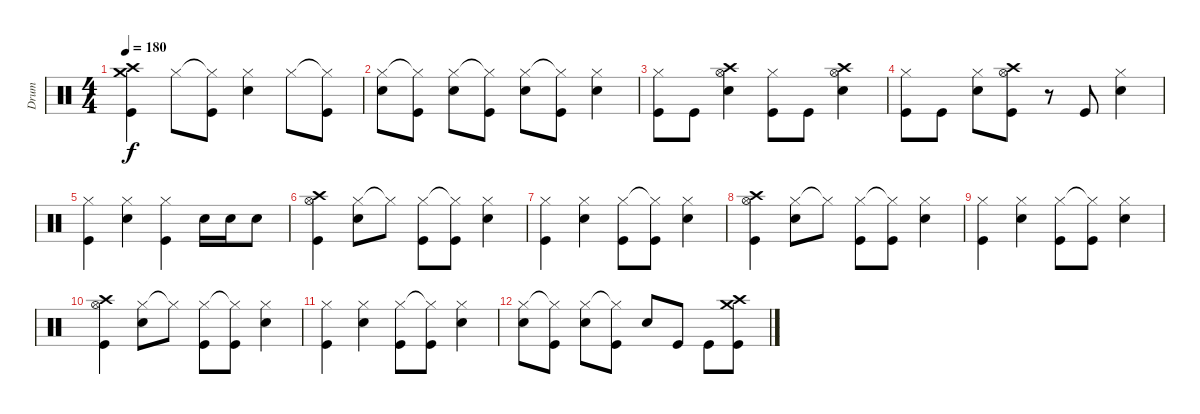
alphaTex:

\track ("Drum" "Drum") {instrument percussion}
\staff {score}
\articulation defaults
\ts (4 4)
\tempo 180
\clef neutral
\ks c
("Crash high (hit)" "Crash medium (hit)" "Kick (hit)").4{dy f} "Hi-Hat (closed)".8 ("Hi-Hat (closed)"{t} "Kick (hit)").8 ("Hi-Hat (closed)" "Snare (hit) 2").4 "Hi-Hat (closed)".8 ("Hi-Hat (closed)"{t} "Kick (hit)").8 |
("Hi-Hat (closed)" "Snare (hit) 2").8 ("Hi-Hat (closed)"{t} "Kick (hit)").8 ("Hi-Hat (closed)" "Snare (hit) 2").8 ("Hi-Hat (closed)"{t} "Kick (hit)").8 ("Hi-Hat (closed)" "Snare (hit) 2").8 ("Hi-Hat (closed)"{t} "Kick (hit)").8 ("Hi-Hat (closed)" "Snare (hit) 2").4 |
("Hi-Hat (closed)" "Kick (hit)").8 "Kick (hit)".8 ("Hi-Hat (open)" "Crash high (hit)" "Snare (hit) 2").4 ("Hi-Hat (closed)" "Kick (hit)").8 "Kick (hit)".8 ("Hi-Hat (open)" "Crash high (hit)" "Snare (hit) 2").4 |
("Hi-Hat (closed)" "Kick (hit)").8 "Kick (hit)".8 ("Hi-Hat (closed)" "Snare (hit) 2").8 ("Hi-Hat (open)" "Crash high (hit)" "Kick (hit)").8 r.8 "Kick (hit)".8 ("Hi-Hat (closed)" "Snare (hit) 2").4 |
("Hi-Hat (closed)" "Kick (hit)").4 ("Hi-Hat (closed)" "Snare (hit) 2").4 ("Hi-Hat (closed)" "Kick (hit)").4 "Snare (hit) 2".16 "Snare (hit) 2".16 "Snare (hit) 2".8 |
("Crash high (hit)" "Hi-Hat (open)" "Kick (hit)").4 ("Hi-Hat (closed)" "Snare (hit) 2").8 "Hi-Hat (closed)"{t}.8 ("Hi-Hat (closed)" "Kick (hit)").8 ("Hi-Hat (closed)"{t} "Kick (hit)").8 ("Hi-Hat (closed)" "Snare (hit) 2").4 |
("Hi-Hat (closed)" "Kick (hit)").4 ("Hi-Hat (closed)" "Snare (hit) 2").4 ("Hi-Hat (closed)" "Kick (hit)").8 ("Hi-Hat (closed)"{t} "Kick (hit)").8 ("Hi-Hat (closed)" "Snare (hit) 2").4 |
("Crash high (hit)" "Hi-Hat (open)" "Kick (hit)").4 ("Hi-Hat (closed)" "Snare (hit) 2").8 "Hi-Hat (closed)"{t}.8 ("Hi-Hat (closed)" "Kick (hit)").8 ("Hi-Hat (closed)"{t} "Kick (hit)").8 ("Hi-Hat (closed)" "Snare (hit) 2").4 |
("Hi-Hat (closed)" "Kick (hit)").4 ("Hi-Hat (closed)" "Snare (hit) 2").4 ("Hi-Hat (closed)" "Kick (hit)").8 ("Hi-Hat (closed)"{t} "Kick (hit)").8 ("Hi-Hat (closed)" "Snare (hit) 2").4 |
("Crash high (hit)" "Hi-Hat (open)" "Kick (hit)").4 ("Hi-Hat (closed)" "Snare (hit) 2").8 "Hi-Hat (closed)"{t}.8 ("Hi-Hat (closed)" "Kick (hit)").8 ("Hi-Hat (closed)"{t} "Kick (hit)").8 ("Hi-Hat (closed)" "Snare (hit) 2").4 |
("Hi-Hat (closed)" "Kick (hit)").4 ("Hi-Hat (closed)" "Snare (hit) 2").4 ("Hi-Hat (closed)" "Kick (hit)").8 ("Hi-Hat (closed)"{t} "Kick (hit)").8 ("Hi-Hat (closed)" "Snare (hit) 2").4 |
("Hi-Hat (closed)" "Snare (hit) 2").8 ("Hi-Hat (closed)"{t} "Kick (hit)").8 ("Hi-Hat (closed)" "Snare (hit) 2").8 ("Hi-Hat (closed)"{t} "Kick (hit)").8 "Snare (hit) 2".8 "Kick (hit)".8 "Kick (hit)".8 ("Crash high (hit)" "Crash medium (hit)" "Kick (hit)").8
